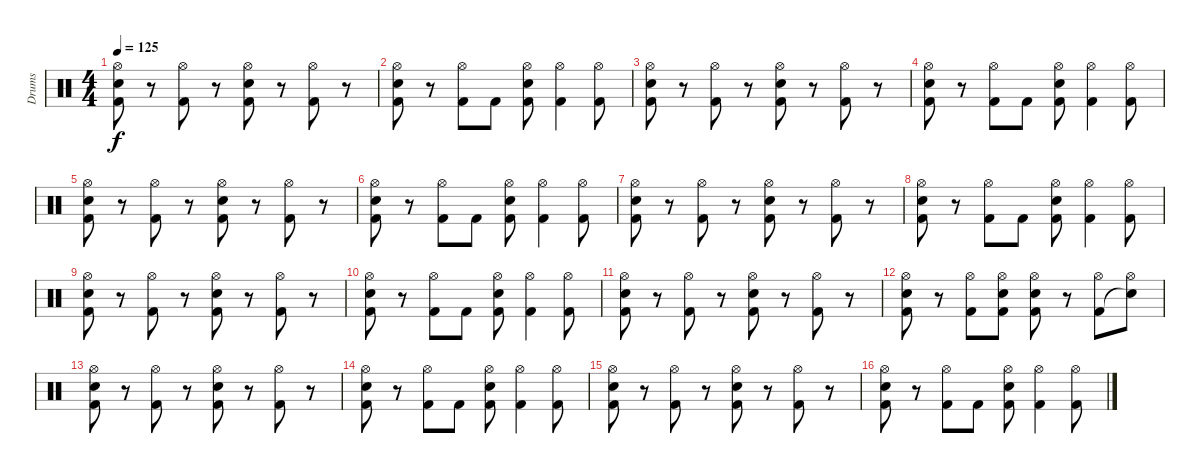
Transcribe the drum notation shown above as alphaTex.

\track ("Drums" "Drums") {instrument percussion}
\staff {score}
\articulation defaults
\ts (4 4)
\tempo 125
\clef neutral
\ks c
("Kick (hit) 2" "Snare (hit) 2" "Hi-Hat (open)").8{dy f} r.8 ("Kick (hit) 2" "Hi-Hat (open)").8 r.8 ("Kick (hit) 2" "Snare (hit) 2" "Hi-Hat (open)").8 r.8 ("Kick (hit) 2" "Hi-Hat (open)").8 r.8 |
("Kick (hit) 2" "Snare (hit) 2" "Hi-Hat (open)").8 r.8 ("Kick (hit) 2" "Hi-Hat (open)").8 "Kick (hit) 2".8 ("Kick (hit) 2" "Snare (hit) 2" "Hi-Hat (open)").8 ("Kick (hit) 2" "Hi-Hat (open)").4 ("Kick (hit) 2" "Hi-Hat (open)").8 |
("Kick (hit) 2" "Snare (hit) 2" "Hi-Hat (open)").8 r.8 ("Kick (hit) 2" "Hi-Hat (open)").8 r.8 ("Kick (hit) 2" "Snare (hit) 2" "Hi-Hat (open)").8 r.8 ("Kick (hit) 2" "Hi-Hat (open)").8 r.8 |
("Kick (hit) 2" "Snare (hit) 2" "Hi-Hat (open)").8 r.8 ("Kick (hit) 2" "Hi-Hat (open)").8 "Kick (hit) 2".8 ("Kick (hit) 2" "Snare (hit) 2" "Hi-Hat (open)").8 ("Kick (hit) 2" "Hi-Hat (open)").4 ("Kick (hit) 2" "Hi-Hat (open)").8 |
("Kick (hit) 2" "Snare (hit) 2" "Hi-Hat (open)").8 r.8 ("Kick (hit) 2" "Hi-Hat (open)").8 r.8 ("Kick (hit) 2" "Snare (hit) 2" "Hi-Hat (open)").8 r.8 ("Kick (hit) 2" "Hi-Hat (open)").8 r.8 |
("Kick (hit) 2" "Snare (hit) 2" "Hi-Hat (open)").8 r.8 ("Kick (hit) 2" "Hi-Hat (open)").8 "Kick (hit) 2".8 ("Kick (hit) 2" "Snare (hit) 2" "Hi-Hat (open)").8 ("Kick (hit) 2" "Hi-Hat (open)").4 ("Kick (hit) 2" "Hi-Hat (open)").8 |
("Kick (hit) 2" "Snare (hit) 2" "Hi-Hat (open)").8 r.8 ("Kick (hit) 2" "Hi-Hat (open)").8 r.8 ("Kick (hit) 2" "Snare (hit) 2" "Hi-Hat (open)").8 r.8 ("Kick (hit) 2" "Hi-Hat (open)").8 r.8 |
("Kick (hit) 2" "Snare (hit) 2" "Hi-Hat (open)").8 r.8 ("Kick (hit) 2" "Hi-Hat (open)").8 "Kick (hit) 2".8 ("Kick (hit) 2" "Snare (hit) 2" "Hi-Hat (open)").8 ("Kick (hit) 2" "Hi-Hat (open)").4 ("Kick (hit) 2" "Hi-Hat (open)").8 |
("Kick (hit) 2" "Snare (hit) 2" "Hi-Hat (open)").8 r.8 ("Kick (hit) 2" "Hi-Hat (open)").8 r.8 ("Kick (hit) 2" "Snare (hit) 2" "Hi-Hat (open)").8 r.8 ("Kick (hit) 2" "Hi-Hat (open)").8 r.8 |
("Kick (hit) 2" "Snare (hit) 2" "Hi-Hat (open)").8 r.8 ("Kick (hit) 2" "Hi-Hat (open)").8 "Kick (hit) 2".8 ("Kick (hit) 2" "Snare (hit) 2" "Hi-Hat (open)").8 ("Kick (hit) 2" "Hi-Hat (open)").4 ("Kick (hit) 2" "Hi-Hat (open)").8 |
("Kick (hit) 2" "Snare (hit) 2" "Hi-Hat (open)").8 r.8 ("Kick (hit) 2" "Hi-Hat (open)").8 r.8 ("Kick (hit) 2" "Snare (hit) 2" "Hi-Hat (open)").8 r.8 ("Kick (hit) 2" "Hi-Hat (open)").8 r.8 |
("Kick (hit) 2" "Snare (hit) 2" "Hi-Hat (open)").8 r.8 ("Kick (hit) 2" "Hi-Hat (open)").8 ("Kick (hit) 2" "Snare (hit) 2" "Hi-Hat (open)").8 ("Kick (hit) 2" "Snare (hit) 2" "Hi-Hat (open)").8 r.8 ("Kick (hit) 2" "Hi-Hat (open)").8 ("Snare (hit)"{t} "Hi-Hat (open)").8 |
("Kick (hit) 2" "Snare (hit) 2" "Hi-Hat (open)").8 r.8 ("Kick (hit) 2" "Hi-Hat (open)").8 r.8 ("Kick (hit) 2" "Snare (hit) 2" "Hi-Hat (open)").8 r.8 ("Kick (hit) 2" "Hi-Hat (open)").8 r.8 |
("Kick (hit) 2" "Snare (hit) 2" "Hi-Hat (open)").8 r.8 ("Kick (hit) 2" "Hi-Hat (open)").8 "Kick (hit) 2".8 ("Kick (hit) 2" "Snare (hit) 2" "Hi-Hat (open)").8 ("Kick (hit) 2" "Hi-Hat (open)").4 ("Kick (hit) 2" "Hi-Hat (open)").8 |
("Kick (hit) 2" "Snare (hit) 2" "Hi-Hat (open)").8 r.8 ("Kick (hit) 2" "Hi-Hat (open)").8 r.8 ("Kick (hit) 2" "Snare (hit) 2" "Hi-Hat (open)").8 r.8 ("Kick (hit) 2" "Hi-Hat (open)").8 r.8 |
("Kick (hit) 2" "Snare (hit) 2" "Hi-Hat (open)").8 r.8 ("Kick (hit) 2" "Hi-Hat (open)").8 "Kick (hit) 2".8 ("Kick (hit) 2" "Snare (hit) 2" "Hi-Hat (open)").8 ("Kick (hit) 2" "Hi-Hat (open)").4 ("Kick (hit) 2" "Hi-Hat (open)").8
